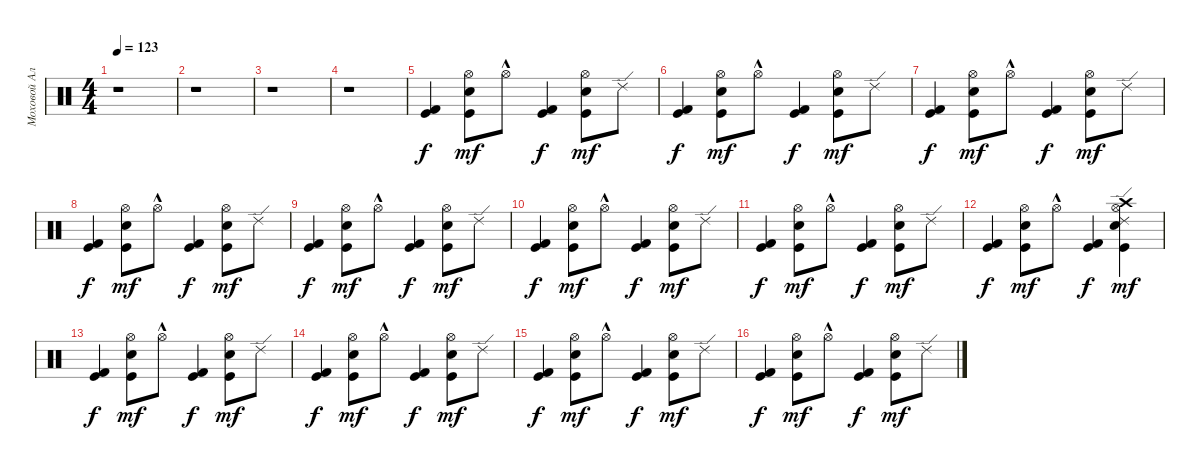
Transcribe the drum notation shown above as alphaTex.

\track ("Moxoвой Алексей" "Moxoвой Ал") {instrument percussion}
\staff {score}
\articulation defaults
\ts (4 4)
\tempo 123
\clef neutral
\ks c
r.1{dy f} |
r.1 |
r.1 |
r.1 |
("Kick (hit) 2" "Kick (hit)").4 ("Kick (hit)" "Hand Clap (hit)" "Hi-Hat (open)").8{dy mf} "Hi-Hat (open)"{hac}.8 ("Kick (hit) 2" "Kick (hit)").4{dy f} ("Kick (hit)" "Hand Clap (hit)" "Hi-Hat (open)").8{dy mf} "Ride (edge) 2".8 |
("Kick (hit) 2" "Kick (hit)").4{dy f} ("Kick (hit)" "Hand Clap (hit)" "Hi-Hat (open)").8{dy mf} "Hi-Hat (open)"{hac}.8 ("Kick (hit) 2" "Kick (hit)").4{dy f} ("Kick (hit)" "Hand Clap (hit)" "Hi-Hat (open)").8{dy mf} "Ride (edge) 2".8 |
("Kick (hit) 2" "Kick (hit)").4{dy f} ("Kick (hit)" "Hand Clap (hit)" "Hi-Hat (open)").8{dy mf} "Hi-Hat (open)"{hac}.8 ("Kick (hit) 2" "Kick (hit)").4{dy f} ("Hand Clap (hit)" "Kick (hit)" "Hi-Hat (open)").8{dy mf} "Ride (edge) 2".8 |
("Kick (hit) 2" "Kick (hit)").4{dy f} ("Kick (hit)" "Hand Clap (hit)" "Hi-Hat (open)").8{dy mf} "Hi-Hat (open)"{hac}.8 ("Kick (hit) 2" "Kick (hit)").4{dy f} ("Hand Clap (hit)" "Kick (hit)" "Hi-Hat (open)").8{dy mf} "Ride (edge) 2".8 |
("Kick (hit) 2" "Kick (hit)").4{dy f} ("Kick (hit)" "Hand Clap (hit)" "Hi-Hat (open)").8{dy mf} "Hi-Hat (open)"{hac}.8 ("Kick (hit) 2" "Kick (hit)").4{dy f} ("Kick (hit)" "Hand Clap (hit)" "Hi-Hat (open)").8{dy mf} "Ride (edge) 2".8 |
("Kick (hit) 2" "Kick (hit)").4{dy f} ("Kick (hit)" "Hand Clap (hit)" "Hi-Hat (open)").8{dy mf} "Hi-Hat (open)"{hac}.8 ("Kick (hit) 2" "Kick (hit)").4{dy f} ("Kick (hit)" "Hand Clap (hit)" "Hi-Hat (open)").8{dy mf} "Ride (edge) 2".8 |
("Kick (hit) 2" "Kick (hit)").4{dy f} ("Kick (hit)" "Hand Clap (hit)" "Hi-Hat (open)").8{dy mf} "Hi-Hat (open)"{hac}.8 ("Kick (hit) 2" "Kick (hit)").4{dy f} ("Hand Clap (hit)" "Kick (hit)" "Hi-Hat (open)").8{dy mf} "Ride (edge) 2".8 |
("Kick (hit) 2" "Kick (hit)").4{dy f} ("Kick (hit)" "Hand Clap (hit)" "Hi-Hat (open)").8{dy mf} "Hi-Hat (open)"{hac}.8 ("Kick (hit) 2" "Kick (hit)").4{dy f} ("Crash high (hit)" "Hand Clap (hit)" "Kick (hit)" "Hi-Hat (open)" "Ride (edge) 2").4{dy mf} |
("Kick (hit) 2" "Kick (hit)").4{dy f} ("Kick (hit)" "Hand Clap (hit)" "Hi-Hat (open)").8{dy mf} "Hi-Hat (open)"{hac}.8 ("Kick (hit) 2" "Kick (hit)").4{dy f} ("Kick (hit)" "Hand Clap (hit)" "Hi-Hat (open)").8{dy mf} "Ride (edge) 2".8 |
("Kick (hit) 2" "Kick (hit)").4{dy f} ("Kick (hit)" "Hand Clap (hit)" "Hi-Hat (open)").8{dy mf} "Hi-Hat (open)"{hac}.8 ("Kick (hit) 2" "Kick (hit)").4{dy f} ("Kick (hit)" "Hand Clap (hit)" "Hi-Hat (open)").8{dy mf} "Ride (edge) 2".8 |
("Kick (hit) 2" "Kick (hit)").4{dy f} ("Kick (hit)" "Hand Clap (hit)" "Hi-Hat (open)").8{dy mf} "Hi-Hat (open)"{hac}.8 ("Kick (hit) 2" "Kick (hit)").4{dy f} ("Hand Clap (hit)" "Kick (hit)" "Hi-Hat (open)").8{dy mf} "Ride (edge) 2".8 |
("Kick (hit) 2" "Kick (hit)").4{dy f} ("Kick (hit)" "Hand Clap (hit)" "Hi-Hat (open)").8{dy mf} "Hi-Hat (open)"{hac}.8 ("Kick (hit) 2" "Kick (hit)").4{dy f} ("Hand Clap (hit)" "Kick (hit)" "Hi-Hat (open)").8{dy mf} "Ride (edge) 2".8
